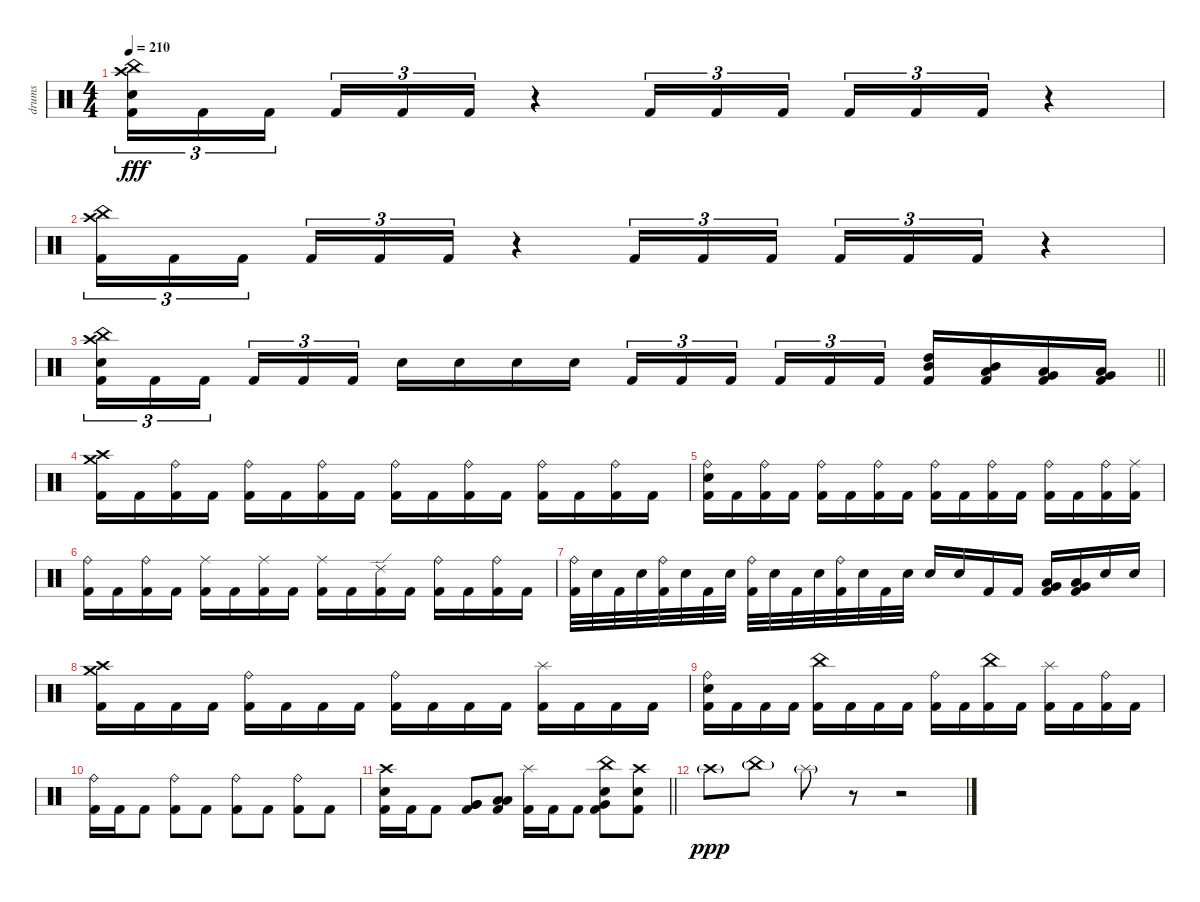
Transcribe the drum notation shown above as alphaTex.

\track ("drums" "drums") {instrument percussion}
\staff {score}
\articulation defaults
\ts (4 4)
\tempo 210
\clef neutral
\ks c
("China (hit)" "Crash high (hit)" "Electric Snare (hit)" "Kick (hit) 2").16{tu (3 2) dy fff} "Kick (hit) 2".16{tu (3 2)} "Kick (hit) 2".16{tu (3 2) beam splitsecondary} "Kick (hit) 2".16{tu (3 2)} "Kick (hit) 2".16{tu (3 2)} "Kick (hit) 2".16{tu (3 2)} r.4 "Kick (hit) 2".16{tu (3 2)} "Kick (hit) 2".16{tu (3 2)} "Kick (hit) 2".16{tu (3 2) beam splitsecondary} "Kick (hit) 2".16{tu (3 2)} "Kick (hit) 2".16{tu (3 2)} "Kick (hit) 2".16{tu (3 2)} r.4 |
("China (hit)" "Crash high (hit)" "Kick (hit) 2").16{tu (3 2)} "Kick (hit) 2".16{tu (3 2)} "Kick (hit) 2".16{tu (3 2) beam splitsecondary} "Kick (hit) 2".16{tu (3 2)} "Kick (hit) 2".16{tu (3 2)} "Kick (hit) 2".16{tu (3 2)} r.4 "Kick (hit) 2".16{tu (3 2)} "Kick (hit) 2".16{tu (3 2)} "Kick (hit) 2".16{tu (3 2) beam splitsecondary} "Kick (hit) 2".16{tu (3 2)} "Kick (hit) 2".16{tu (3 2)} "Kick (hit) 2".16{tu (3 2)} r.4 |
\barLineRight lightlight
("China (hit)" "Crash high (hit)" "Electric Snare (hit)" "Kick (hit) 2").16{tu (3 2)} "Kick (hit) 2".16{tu (3 2)} "Kick (hit) 2".16{tu (3 2) beam splitsecondary} "Kick (hit) 2".16{tu (3 2)} "Kick (hit) 2".16{tu (3 2)} "Kick (hit) 2".16{tu (3 2)} "Electric Snare (hit)".16 "Electric Snare (hit)".16 "Electric Snare (hit)".16 "Electric Snare (hit)".16 "Kick (hit) 2".16{tu (3 2)} "Kick (hit) 2".16{tu (3 2)} "Kick (hit) 2".16{tu (3 2) beam splitsecondary} "Kick (hit) 2".16{tu (3 2)} "Kick (hit) 2".16{tu (3 2)} "Kick (hit) 2".16{tu (3 2)} ("High Tom (hit)" "Mid Tom (hit)" "Kick (hit) 2").16 ("Mid Tom (hit)" "Low Tom (hit)" "Kick (hit) 2").16 ("Low Tom (hit)" "Very Low Tom (hit)" "Kick (hit) 2").16 ("Very Low Tom (hit)" "Low Floor Tom (hit)" "Kick (hit) 2").16 |
\section ("" "")
("Crash high (hit)" "Crash medium (hit)" "Kick (hit) 2").16 "Kick (hit) 2".16 ("Ride (bell)" "Kick (hit) 2").16 "Kick (hit) 2".16 ("Ride (bell)" "Kick (hit) 2").16 "Kick (hit) 2".16 ("Ride (bell)" "Kick (hit) 2").16 "Kick (hit) 2".16 ("Ride (bell)" "Kick (hit) 2").16 "Kick (hit) 2".16 ("Ride (bell)" "Kick (hit) 2").16 "Kick (hit) 2".16 ("Ride (bell)" "Kick (hit) 2").16 "Kick (hit) 2".16 ("Ride (bell)" "Kick (hit) 2").16 "Kick (hit) 2".16 |
("Ride (bell)" "Electric Snare (hit)" "Kick (hit) 2").16 "Kick (hit) 2".16 ("Ride (bell)" "Kick (hit) 2").16 "Kick (hit) 2".16 ("Ride (bell)" "Kick (hit) 2").16 "Kick (hit) 2".16 ("Ride (bell)" "Kick (hit) 2").16 "Kick (hit) 2".16 ("Ride (bell)" "Kick (hit) 2").16 "Kick (hit) 2".16 ("Ride (bell)" "Kick (hit) 2").16 "Kick (hit) 2".16 ("Ride (bell)" "Kick (hit) 2").16 "Kick (hit) 2".16 ("Ride (bell)" "Kick (hit) 2").16 ("Ride (middle)" "Kick (hit) 2").16 |
("Ride (bell)" "Kick (hit) 2").16 "Kick (hit) 2".16 ("Ride (bell)" "Kick (hit) 2").16 "Kick (hit) 2".16 ("Ride (middle)" "Kick (hit) 2").16 "Kick (hit) 2".16 ("Ride (middle)" "Kick (hit) 2").16 "Kick (hit) 2".16 ("Ride (middle)" "Kick (hit) 2").16 "Kick (hit) 2".16 ("Ride (edge) 2" "Kick (hit) 2").16 "Kick (hit) 2".16 ("Ride (bell)" "Kick (hit) 2").16 "Kick (hit) 2".16 ("Ride (bell)" "Kick (hit) 2").16 "Kick (hit) 2".16 |
("Ride (bell)" "Kick (hit) 2").32 "Electric Snare (hit)".32 "Kick (hit) 2".32 "Electric Snare (hit)".32 ("Ride (bell)" "Kick (hit) 2").32 "Electric Snare (hit)".32 "Kick (hit) 2".32 "Electric Snare (hit)".32 ("Ride (bell)" "Kick (hit) 2").32 "Electric Snare (hit)".32 "Kick (hit) 2".32 "Electric Snare (hit)".32 ("Ride (bell)" "Kick (hit) 2").32 "Electric Snare (hit)".32 "Kick (hit) 2".32 "Electric Snare (hit)".32 "Electric Snare (hit)".16 "Electric Snare (hit)".16 "Kick (hit) 2".16 "Kick (hit) 2".16 ("Low Tom (hit)" "Very Low Tom (hit)" "Kick (hit) 2").16 ("Very Low Tom (hit)" "Low Floor Tom (hit)" "Kick (hit) 2").16 "Electric Snare (hit)".16 "Electric Snare (hit)".16 |
("Crash high (hit)" "Crash medium (hit)" "Kick (hit) 2").16 "Kick (hit) 2".16 "Kick (hit) 2".16 "Kick (hit) 2".16 ("Ride (bell)" "Kick (hit) 2").16 "Kick (hit) 2".16 "Kick (hit) 2".16 "Kick (hit) 2".16 ("Ride (bell)" "Kick (hit) 2").16 "Kick (hit) 2".16 "Kick (hit) 2".16 "Kick (hit) 2".16 ("Splash (hit)" "Kick (hit) 2").16 "Kick (hit) 2".16 "Kick (hit) 2".16 "Kick (hit) 2".16 |
("Ride (bell)" "Electric Snare (hit)" "Kick (hit) 2").16 "Kick (hit) 2".16 "Kick (hit) 2".16 "Kick (hit) 2".16 ("China (hit)" "Kick (hit) 2").16 "Kick (hit) 2".16 "Kick (hit) 2".16 "Kick (hit) 2".16 ("Ride (bell)" "Kick (hit) 2").16 "Kick (hit) 2".16 ("China (hit)" "Kick (hit) 2").16 "Kick (hit) 2".16 ("Splash (hit)" "Kick (hit) 2").16 "Kick (hit) 2".16 ("Ride (bell)" "Kick (hit) 2").16 "Kick (hit) 2".16 |
("Ride (bell)" "Kick (hit) 2").16 "Kick (hit) 2".16 "Kick (hit) 2".8 ("Ride (bell)" "Kick (hit) 2").8 "Kick (hit) 2".8 ("Ride (bell)" "Kick (hit) 2").8 "Kick (hit) 2".8 ("Ride (bell)" "Kick (hit) 2").8 "Kick (hit) 2".8 |
\barLineRight lightlight
("Crash high (hit)" "Electric Snare (hit)" "Kick (hit) 2").16 "Kick (hit) 2".16 "Kick (hit) 2".8 ("Very Low Tom (hit)" "Very Low Tom (hit)" "Kick (hit) 2").8 ("Low Floor Tom (hit)" "Low Floor Tom (hit)" "Kick (hit) 2").8 ("Splash (hit)" "Kick (hit) 2").16 "Kick (hit) 2".16 "Kick (hit) 2".8 ("China (hit)" "Electric Snare (hit)" "Very Low Tom (hit)" "Kick (hit) 2").8 ("Crash high (hit)" "Electric Snare (hit)" "Kick (hit) 2").8 |
"Crash high (hit)"{g}.8{dy ppp} "China (hit)"{g}.8 "Splash (hit)"{g}.8 r.8 r.2
